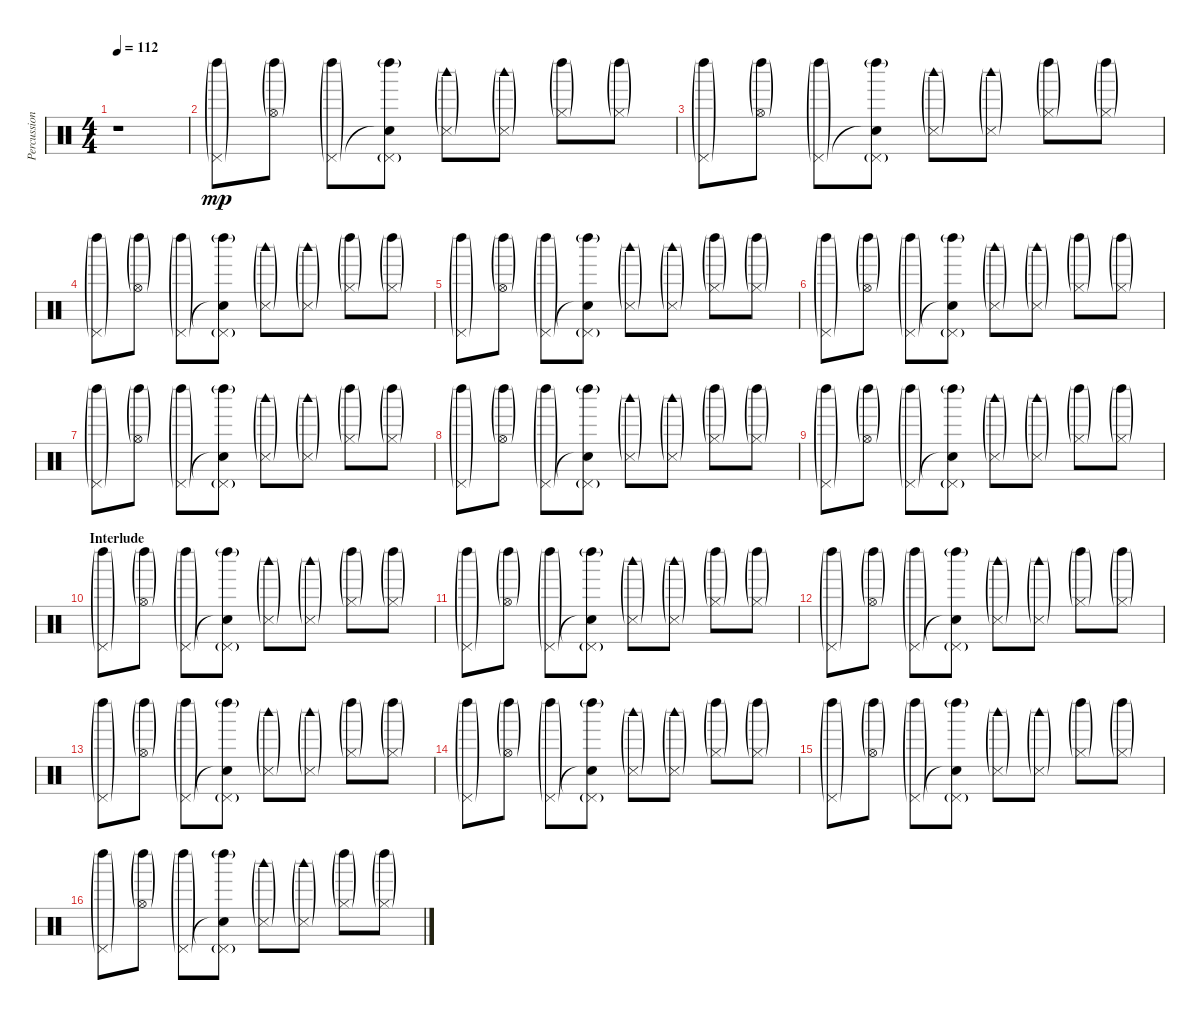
\track ("Percussion" "Percussion") {instrument percussion}
\staff {score}
\articulation defaults
\ts (4 4)
\tempo 112
\clef neutral
\ks c
r.1{dy mp} |
("Left Maraca (hit)"{g} "Pedal Hi-Hat (hit)"{g}).8 ("Left Maraca (hit)"{g} "Hi-Hat (open)"{g}).8 ("Left Maraca (hit)"{g} "Pedal Hi-Hat (hit)"{g}).8 ("Left Maraca (hit)"{g} "Snare (hit)"{t} "Pedal Hi-Hat (hit)"{g}).8 ("Snare (side stick) 3"{g} "Woodblock high (hit)"{g}).8 ("Snare (side stick) 3"{g} "Woodblock high (hit)"{g}).8 ("Left Maraca (hit)"{g} "Hi-Hat (closed)"{g}).8 ("Left Maraca (hit)"{g} "Hi-Hat (closed)"{g}).8 |
("Left Maraca (hit)"{g} "Pedal Hi-Hat (hit)"{g}).8 ("Left Maraca (hit)"{g} "Hi-Hat (open)"{g}).8 ("Left Maraca (hit)"{g} "Pedal Hi-Hat (hit)"{g}).8 ("Left Maraca (hit)"{g} "Snare (hit)"{t} "Pedal Hi-Hat (hit)"{g}).8 ("Snare (side stick) 3"{g} "Woodblock high (hit)"{g}).8 ("Snare (side stick) 3"{g} "Woodblock high (hit)"{g}).8 ("Left Maraca (hit)"{g} "Hi-Hat (closed)"{g}).8 ("Left Maraca (hit)"{g} "Hi-Hat (closed)"{g}).8 |
("Left Maraca (hit)"{g} "Pedal Hi-Hat (hit)"{g}).8 ("Left Maraca (hit)"{g} "Hi-Hat (open)"{g}).8 ("Left Maraca (hit)"{g} "Pedal Hi-Hat (hit)"{g}).8 ("Left Maraca (hit)"{g} "Snare (hit)"{t} "Pedal Hi-Hat (hit)"{g}).8 ("Snare (side stick) 3"{g} "Woodblock high (hit)"{g}).8 ("Snare (side stick) 3"{g} "Woodblock high (hit)"{g}).8 ("Left Maraca (hit)"{g} "Hi-Hat (closed)"{g}).8 ("Left Maraca (hit)"{g} "Hi-Hat (closed)"{g}).8 |
("Left Maraca (hit)"{g} "Pedal Hi-Hat (hit)"{g}).8 ("Left Maraca (hit)"{g} "Hi-Hat (open)"{g}).8 ("Left Maraca (hit)"{g} "Pedal Hi-Hat (hit)"{g}).8 ("Left Maraca (hit)"{g} "Snare (hit)"{t} "Pedal Hi-Hat (hit)"{g}).8 ("Snare (side stick) 3"{g} "Woodblock high (hit)"{g}).8 ("Snare (side stick) 3"{g} "Woodblock high (hit)"{g}).8 ("Left Maraca (hit)"{g} "Hi-Hat (closed)"{g}).8 ("Left Maraca (hit)"{g} "Hi-Hat (closed)"{g}).8 |
("Left Maraca (hit)"{g} "Pedal Hi-Hat (hit)"{g}).8 ("Left Maraca (hit)"{g} "Hi-Hat (open)"{g}).8 ("Left Maraca (hit)"{g} "Pedal Hi-Hat (hit)"{g}).8 ("Left Maraca (hit)"{g} "Snare (hit)"{t} "Pedal Hi-Hat (hit)"{g}).8 ("Snare (side stick) 3"{g} "Woodblock high (hit)"{g}).8 ("Snare (side stick) 3"{g} "Woodblock high (hit)"{g}).8 ("Left Maraca (hit)"{g} "Hi-Hat (closed)"{g}).8 ("Left Maraca (hit)"{g} "Hi-Hat (closed)"{g}).8 |
("Left Maraca (hit)"{g} "Pedal Hi-Hat (hit)"{g}).8 ("Left Maraca (hit)"{g} "Hi-Hat (open)"{g}).8 ("Left Maraca (hit)"{g} "Pedal Hi-Hat (hit)"{g}).8 ("Left Maraca (hit)"{g} "Snare (hit)"{t} "Pedal Hi-Hat (hit)"{g}).8 ("Snare (side stick) 3"{g} "Woodblock high (hit)"{g}).8 ("Snare (side stick) 3"{g} "Woodblock high (hit)"{g}).8 ("Left Maraca (hit)"{g} "Hi-Hat (closed)"{g}).8 ("Left Maraca (hit)"{g} "Hi-Hat (closed)"{g}).8 |
("Left Maraca (hit)"{g} "Pedal Hi-Hat (hit)"{g}).8 ("Left Maraca (hit)"{g} "Hi-Hat (open)"{g}).8 ("Left Maraca (hit)"{g} "Pedal Hi-Hat (hit)"{g}).8 ("Left Maraca (hit)"{g} "Snare (hit)"{t} "Pedal Hi-Hat (hit)"{g}).8 ("Snare (side stick) 3"{g} "Woodblock high (hit)"{g}).8 ("Snare (side stick) 3"{g} "Woodblock high (hit)"{g}).8 ("Left Maraca (hit)"{g} "Hi-Hat (closed)"{g}).8 ("Left Maraca (hit)"{g} "Hi-Hat (closed)"{g}).8 |
("Left Maraca (hit)"{g} "Pedal Hi-Hat (hit)"{g}).8 ("Left Maraca (hit)"{g} "Hi-Hat (open)"{g}).8 ("Left Maraca (hit)"{g} "Pedal Hi-Hat (hit)"{g}).8 ("Left Maraca (hit)"{g} "Snare (hit)"{t} "Pedal Hi-Hat (hit)"{g}).8 ("Snare (side stick) 3"{g} "Woodblock high (hit)"{g}).8 ("Snare (side stick) 3"{g} "Woodblock high (hit)"{g}).8 ("Left Maraca (hit)"{g} "Hi-Hat (closed)"{g}).8 ("Left Maraca (hit)"{g} "Hi-Hat (closed)"{g}).8 |
\section ("" "Interlude")
("Left Maraca (hit)"{g} "Pedal Hi-Hat (hit)"{g}).8{volume 13} ("Left Maraca (hit)"{g} "Hi-Hat (open)"{g}).8 ("Left Maraca (hit)"{g} "Pedal Hi-Hat (hit)"{g}).8 ("Left Maraca (hit)"{g} "Snare (hit)"{t} "Pedal Hi-Hat (hit)"{g}).8 ("Snare (side stick) 3"{g} "Woodblock high (hit)"{g}).8 ("Snare (side stick) 3"{g} "Woodblock high (hit)"{g}).8 ("Left Maraca (hit)"{g} "Hi-Hat (closed)"{g}).8 ("Left Maraca (hit)"{g} "Hi-Hat (closed)"{g}).8 |
("Left Maraca (hit)"{g} "Pedal Hi-Hat (hit)"{g}).8 ("Left Maraca (hit)"{g} "Hi-Hat (open)"{g}).8 ("Left Maraca (hit)"{g} "Pedal Hi-Hat (hit)"{g}).8 ("Left Maraca (hit)"{g} "Snare (hit)"{t} "Pedal Hi-Hat (hit)"{g}).8 ("Snare (side stick) 3"{g} "Woodblock high (hit)"{g}).8 ("Snare (side stick) 3"{g} "Woodblock high (hit)"{g}).8 ("Left Maraca (hit)"{g} "Hi-Hat (closed)"{g}).8 ("Left Maraca (hit)"{g} "Hi-Hat (closed)"{g}).8 |
("Left Maraca (hit)"{g} "Pedal Hi-Hat (hit)"{g}).8 ("Left Maraca (hit)"{g} "Hi-Hat (open)"{g}).8 ("Left Maraca (hit)"{g} "Pedal Hi-Hat (hit)"{g}).8 ("Left Maraca (hit)"{g} "Snare (hit)"{t} "Pedal Hi-Hat (hit)"{g}).8 ("Snare (side stick) 3"{g} "Woodblock high (hit)"{g}).8 ("Snare (side stick) 3"{g} "Woodblock high (hit)"{g}).8 ("Left Maraca (hit)"{g} "Hi-Hat (closed)"{g}).8 ("Left Maraca (hit)"{g} "Hi-Hat (closed)"{g}).8 |
("Left Maraca (hit)"{g} "Pedal Hi-Hat (hit)"{g}).8 ("Left Maraca (hit)"{g} "Hi-Hat (open)"{g}).8 ("Left Maraca (hit)"{g} "Pedal Hi-Hat (hit)"{g}).8 ("Left Maraca (hit)"{g} "Snare (hit)"{t} "Pedal Hi-Hat (hit)"{g}).8 ("Snare (side stick) 3"{g} "Woodblock high (hit)"{g}).8 ("Snare (side stick) 3"{g} "Woodblock high (hit)"{g}).8 ("Left Maraca (hit)"{g} "Hi-Hat (closed)"{g}).8 ("Left Maraca (hit)"{g} "Hi-Hat (closed)"{g}).8 |
("Left Maraca (hit)"{g} "Pedal Hi-Hat (hit)"{g}).8 ("Left Maraca (hit)"{g} "Hi-Hat (open)"{g}).8 ("Left Maraca (hit)"{g} "Pedal Hi-Hat (hit)"{g}).8 ("Left Maraca (hit)"{g} "Snare (hit)"{t} "Pedal Hi-Hat (hit)"{g}).8 ("Snare (side stick) 3"{g} "Woodblock high (hit)"{g}).8 ("Snare (side stick) 3"{g} "Woodblock high (hit)"{g}).8 ("Left Maraca (hit)"{g} "Hi-Hat (closed)"{g}).8 ("Left Maraca (hit)"{g} "Hi-Hat (closed)"{g}).8 |
("Left Maraca (hit)"{g} "Pedal Hi-Hat (hit)"{g}).8 ("Left Maraca (hit)"{g} "Hi-Hat (open)"{g}).8 ("Left Maraca (hit)"{g} "Pedal Hi-Hat (hit)"{g}).8 ("Left Maraca (hit)"{g} "Snare (hit)"{t} "Pedal Hi-Hat (hit)"{g}).8 ("Snare (side stick) 3"{g} "Woodblock high (hit)"{g}).8 ("Snare (side stick) 3"{g} "Woodblock high (hit)"{g}).8 ("Left Maraca (hit)"{g} "Hi-Hat (closed)"{g}).8 ("Left Maraca (hit)"{g} "Hi-Hat (closed)"{g}).8 |
("Left Maraca (hit)"{g} "Pedal Hi-Hat (hit)"{g}).8 ("Left Maraca (hit)"{g} "Hi-Hat (open)"{g}).8 ("Left Maraca (hit)"{g} "Pedal Hi-Hat (hit)"{g}).8 ("Left Maraca (hit)"{g} "Snare (hit)"{t} "Pedal Hi-Hat (hit)"{g}).8 ("Snare (side stick) 3"{g} "Woodblock high (hit)"{g}).8 ("Snare (side stick) 3"{g} "Woodblock high (hit)"{g}).8 ("Left Maraca (hit)"{g} "Hi-Hat (closed)"{g}).8 ("Left Maraca (hit)"{g} "Hi-Hat (closed)"{g}).8
